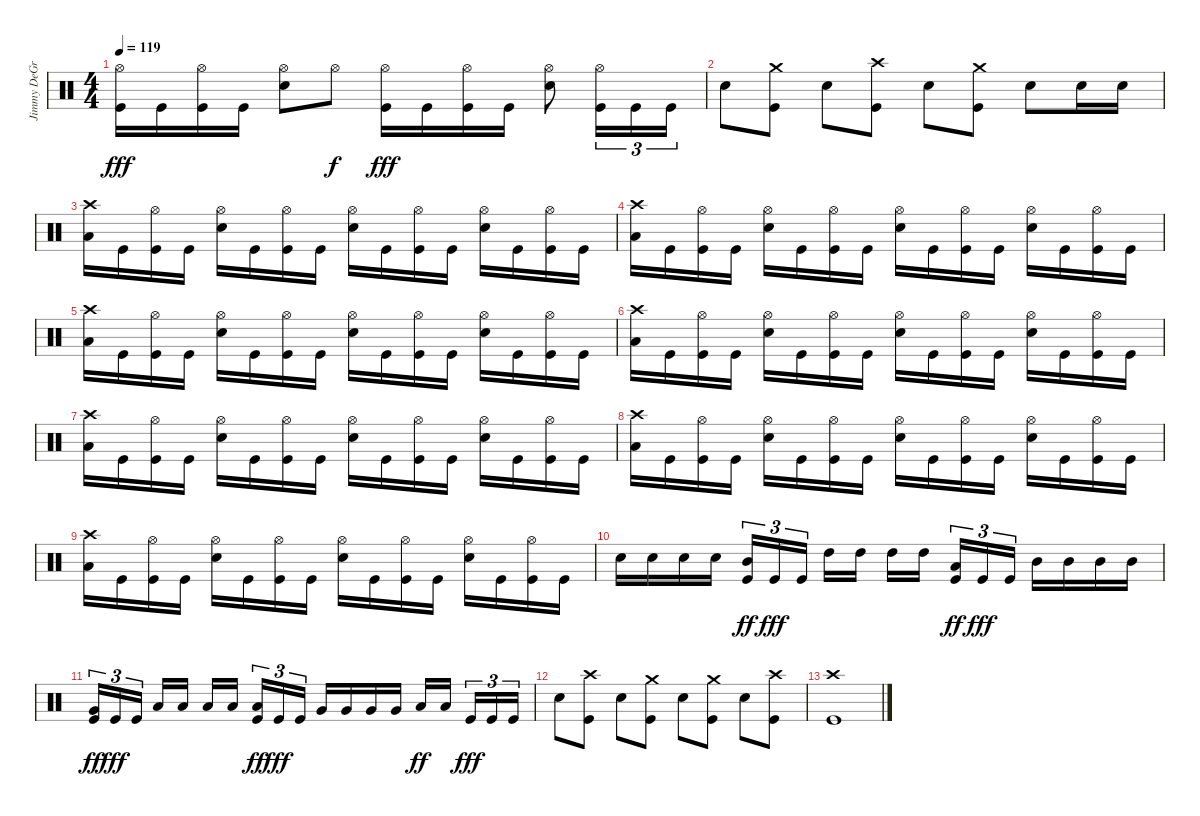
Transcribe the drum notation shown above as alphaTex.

\track ("Jimmy DeGrasso" "Jimmy DeGr") {instrument percussion}
\staff {score}
\articulation defaults
\ts (4 4)
\tempo 119
\clef neutral
\ks c
("Kick (hit)" "Hi-Hat (open)").16{dy fff} "Kick (hit)".16 ("Kick (hit)" "Hi-Hat (open)").16 "Kick (hit)".16 ("Electric Snare (hit)" "Hi-Hat (open)").8 "Hi-Hat (open)".8{dy f} ("Kick (hit)" "Hi-Hat (open)").16{dy fff} "Kick (hit)".16 ("Kick (hit)" "Hi-Hat (open)").16 "Kick (hit)".16 ("Electric Snare (hit)" "Hi-Hat (open)").8 ("Kick (hit)" "Hi-Hat (open)").16{tu (3 2)} "Kick (hit)".16{tu (3 2)} "Kick (hit)".16{tu (3 2)} |
"Electric Snare (hit)".8 ("Kick (hit)" "Crash medium (hit)").8 "Electric Snare (hit)".8 ("Kick (hit)" "Crash high (hit)").8 "Electric Snare (hit)".8 ("Kick (hit)" "Crash medium (hit)").8 "Electric Snare (hit)".8 "Electric Snare (hit)".16 "Electric Snare (hit)".16 |
("Low Floor Tom (hit)" "Crash high (hit)").16 "Kick (hit)".16 ("Kick (hit)" "Hi-Hat (open)").16 "Kick (hit)".16 ("Electric Snare (hit)" "Hi-Hat (open)").16 "Kick (hit)".16 ("Kick (hit)" "Hi-Hat (open)").16 "Kick (hit)".16 ("Electric Snare (hit)" "Hi-Hat (open)").16 "Kick (hit)".16 ("Kick (hit)" "Hi-Hat (open)").16 "Kick (hit)".16 ("Electric Snare (hit)" "Hi-Hat (open)").16 "Kick (hit)".16 ("Kick (hit)" "Hi-Hat (open)").16 "Kick (hit)".16 |
("Low Floor Tom (hit)" "Crash high (hit)").16 "Kick (hit)".16 ("Kick (hit)" "Hi-Hat (open)").16 "Kick (hit)".16 ("Electric Snare (hit)" "Hi-Hat (open)").16 "Kick (hit)".16 ("Kick (hit)" "Hi-Hat (open)").16 "Kick (hit)".16 ("Electric Snare (hit)" "Hi-Hat (open)").16 "Kick (hit)".16 ("Kick (hit)" "Hi-Hat (open)").16 "Kick (hit)".16 ("Electric Snare (hit)" "Hi-Hat (open)").16 "Kick (hit)".16 ("Kick (hit)" "Hi-Hat (open)").16 "Kick (hit)".16 |
("Low Floor Tom (hit)" "Crash high (hit)").16 "Kick (hit)".16 ("Kick (hit)" "Hi-Hat (open)").16 "Kick (hit)".16 ("Electric Snare (hit)" "Hi-Hat (open)").16 "Kick (hit)".16 ("Kick (hit)" "Hi-Hat (open)").16 "Kick (hit)".16 ("Electric Snare (hit)" "Hi-Hat (open)").16 "Kick (hit)".16 ("Kick (hit)" "Hi-Hat (open)").16 "Kick (hit)".16 ("Electric Snare (hit)" "Hi-Hat (open)").16 "Kick (hit)".16 ("Kick (hit)" "Hi-Hat (open)").16 "Kick (hit)".16 |
("Low Floor Tom (hit)" "Crash high (hit)").16 "Kick (hit)".16 ("Kick (hit)" "Hi-Hat (open)").16 "Kick (hit)".16 ("Electric Snare (hit)" "Hi-Hat (open)").16 "Kick (hit)".16 ("Kick (hit)" "Hi-Hat (open)").16 "Kick (hit)".16 ("Electric Snare (hit)" "Hi-Hat (open)").16 "Kick (hit)".16 ("Kick (hit)" "Hi-Hat (open)").16 "Kick (hit)".16 ("Electric Snare (hit)" "Hi-Hat (open)").16 "Kick (hit)".16 ("Kick (hit)" "Hi-Hat (open)").16 "Kick (hit)".16 |
("Low Floor Tom (hit)" "Crash high (hit)").16 "Kick (hit)".16 ("Kick (hit)" "Hi-Hat (open)").16 "Kick (hit)".16 ("Electric Snare (hit)" "Hi-Hat (open)").16 "Kick (hit)".16 ("Kick (hit)" "Hi-Hat (open)").16 "Kick (hit)".16 ("Electric Snare (hit)" "Hi-Hat (open)").16 "Kick (hit)".16 ("Kick (hit)" "Hi-Hat (open)").16 "Kick (hit)".16 ("Electric Snare (hit)" "Hi-Hat (open)").16 "Kick (hit)".16 ("Kick (hit)" "Hi-Hat (open)").16 "Kick (hit)".16 |
("Low Floor Tom (hit)" "Crash high (hit)").16 "Kick (hit)".16 ("Kick (hit)" "Hi-Hat (open)").16 "Kick (hit)".16 ("Electric Snare (hit)" "Hi-Hat (open)").16 "Kick (hit)".16 ("Kick (hit)" "Hi-Hat (open)").16 "Kick (hit)".16 ("Electric Snare (hit)" "Hi-Hat (open)").16 "Kick (hit)".16 ("Kick (hit)" "Hi-Hat (open)").16 "Kick (hit)".16 ("Electric Snare (hit)" "Hi-Hat (open)").16 "Kick (hit)".16 ("Kick (hit)" "Hi-Hat (open)").16 "Kick (hit)".16 |
("Low Floor Tom (hit)" "Crash high (hit)").16 "Kick (hit)".16 ("Kick (hit)" "Hi-Hat (open)").16 "Kick (hit)".16 ("Electric Snare (hit)" "Hi-Hat (open)").16 "Kick (hit)".16 ("Kick (hit)" "Hi-Hat (open)").16 "Kick (hit)".16 ("Electric Snare (hit)" "Hi-Hat (open)").16 "Kick (hit)".16 ("Kick (hit)" "Hi-Hat (open)").16 "Kick (hit)".16 ("Electric Snare (hit)" "Hi-Hat (open)").16 "Kick (hit)".16 ("Kick (hit)" "Hi-Hat (open)").16 "Kick (hit)".16 |
"Electric Snare (hit)".16 "Electric Snare (hit)".16 "Electric Snare (hit)".16 "Electric Snare (hit)".16 ("Kick (hit)" "Mid Tom (hit)").16{tu (3 2) dy ff} "Kick (hit)".16{tu (3 2) dy fff} "Kick (hit)".16{tu (3 2) beam splitsecondary} "High Tom (hit)".16 "High Tom (hit)".16 "High Tom (hit)".16 "High Tom (hit)".16{beam splitsecondary} ("Kick (hit)" "Low Tom (hit)").16{tu (3 2) dy ff} "Kick (hit)".16{tu (3 2) dy fff} "Kick (hit)".16{tu (3 2)} "Mid Tom (hit)".16 "Mid Tom (hit)".16 "Mid Tom (hit)".16 "Mid Tom (hit)".16 |
("Kick (hit)" "Very Low Tom (hit)").16{tu (3 2) dy ff} "Kick (hit)".16{tu (3 2) dy fff} "Kick (hit)".16{tu (3 2) beam splitsecondary} "Low Tom (hit)".16 "Low Tom (hit)".16 "Low Tom (hit)".16 "Low Tom (hit)".16{beam splitsecondary} ("Kick (hit)" "Low Floor Tom (hit)").16{tu (3 2) dy ff} "Kick (hit)".16{tu (3 2) dy fff} "Kick (hit)".16{tu (3 2)} "Very Low Tom (hit)".16 "Very Low Tom (hit)".16 "Very Low Tom (hit)".16 "Very Low Tom (hit)".16 "Low Floor Tom (hit)".16{dy ff} "Low Floor Tom (hit)".16{beam splitsecondary} "Kick (hit)".16{tu (3 2) dy fff} "Kick (hit)".16{tu (3 2)} "Kick (hit)".16{tu (3 2)} |
"Electric Snare (hit)".8 ("Kick (hit)" "Crash high (hit)").8 "Electric Snare (hit)".8 ("Kick (hit)" "Crash medium (hit)").8 "Electric Snare (hit)".8 ("Kick (hit)" "Crash medium (hit)").8 "Electric Snare (hit)".8 ("Kick (hit)" "Crash high (hit)").8 |
("Kick (hit)" "Crash high (hit)").1
